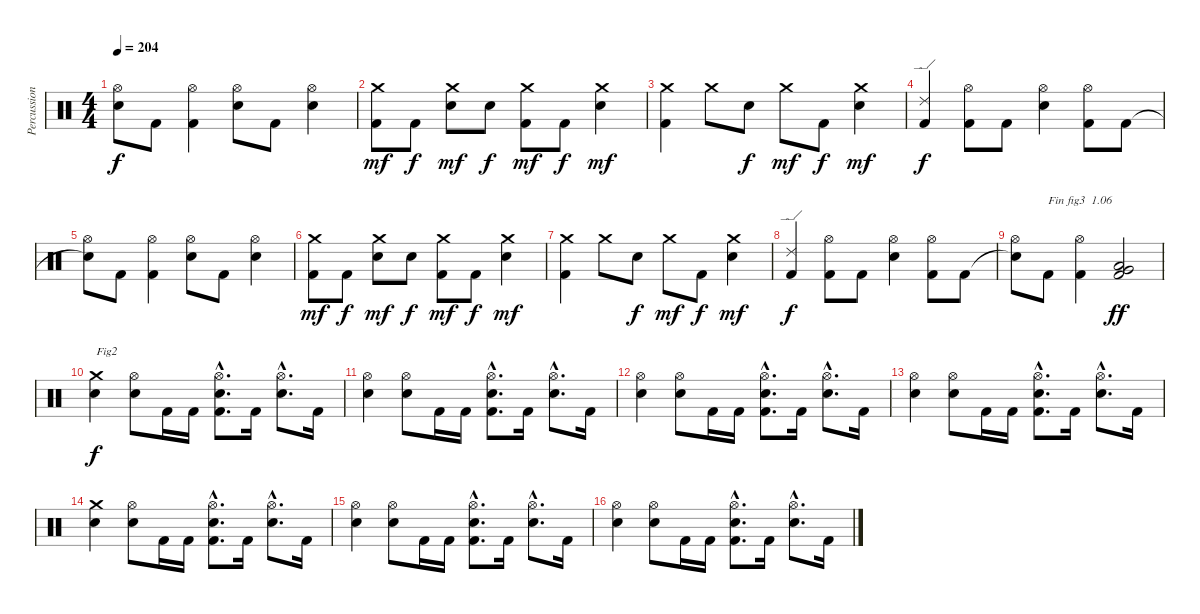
\track ("Percussions" "Percussion") {instrument percussion}
\staff {score}
\articulation defaults
\ts (4 4)
\tempo 204
\clef neutral
\ks c
("Snare (hit)"{t} "Hi-Hat (open)").8{dy f} "Kick (hit) 2".8 ("Kick (hit) 2" "Hi-Hat (open)").4 ("Electric Snare (hit)" "Hi-Hat (open)").8 "Kick (hit) 2".8 ("Electric Snare (hit)" "Hi-Hat (open)").4 |
("Kick (hit) 2" "Crash medium (hit)").8{dy mf} "Kick (hit) 2".8{dy f} ("Electric Snare (hit)" "Crash medium (hit)").8{dy mf} "Electric Snare (hit)".8{dy f} ("Kick (hit) 2" "Crash medium (hit)").8{dy mf} "Kick (hit) 2".8{dy f} ("Electric Snare (hit)" "Crash medium (hit)").4{dy mf} |
("Kick (hit) 2" "Crash medium (hit)").4 "Crash medium (hit)".8 "Electric Snare (hit)".8{dy f} "Crash medium (hit)".8{dy mf} "Kick (hit) 2".8{dy f} ("Electric Snare (hit)" "Crash medium (hit)").4{dy mf} |
("Kick (hit) 2" "Ride (edge) 2").4{dy f} ("Kick (hit) 2" "Hi-Hat (open)").8 "Kick (hit) 2".8 ("Electric Snare (hit)" "Hi-Hat (open)").4 ("Kick (hit) 2" "Hi-Hat (open)").8 "Kick (hit) 2".8 |
("Snare (hit)"{t} "Hi-Hat (open)").8 "Kick (hit) 2".8 ("Kick (hit) 2" "Hi-Hat (open)").4 ("Electric Snare (hit)" "Hi-Hat (open)").8 "Kick (hit) 2".8 ("Electric Snare (hit)" "Hi-Hat (open)").4 |
("Kick (hit) 2" "Crash medium (hit)").8{dy mf} "Kick (hit) 2".8{dy f} ("Electric Snare (hit)" "Crash medium (hit)").8{dy mf} "Electric Snare (hit)".8{dy f} ("Kick (hit) 2" "Crash medium (hit)").8{dy mf} "Kick (hit) 2".8{dy f} ("Electric Snare (hit)" "Crash medium (hit)").4{dy mf} |
("Kick (hit) 2" "Crash medium (hit)").4 "Crash medium (hit)".8 "Electric Snare (hit)".8{dy f} "Crash medium (hit)".8{dy mf} "Kick (hit) 2".8{dy f} ("Electric Snare (hit)" "Crash medium (hit)").4{dy mf} |
("Kick (hit) 2" "Ride (edge) 2").4{dy f} ("Kick (hit) 2" "Hi-Hat (open)").8 "Kick (hit) 2".8 ("Electric Snare (hit)" "Hi-Hat (open)").4 ("Kick (hit) 2" "Hi-Hat (open)").8 "Kick (hit) 2".8 |
("Snare (hit)"{t} "Hi-Hat (open)").8 "Kick (hit) 2".8{txt "Fin fig3  1.06"} ("Kick (hit) 2" "Hi-Hat (open)").4 ("Kick (hit) 2" "Low Floor Tom (hit)" "Very Low Tom (hit)").2{dy ff} |
("Electric Snare (hit)" "Crash medium (hit)").4{txt "Fig2" dy f} ("Electric Snare (hit)" "Hi-Hat (open)").8 "Kick (hit) 2".16 "Kick (hit) 2".16 ("Kick (hit) 2"{hac} "Electric Snare (hit)"{hac} "Hi-Hat (open)"{hac}).8{d} "Kick (hit) 2".16 ("Electric Snare (hit)"{hac} "Hi-Hat (open)"{hac}).8{d} "Kick (hit) 2".16 |
("Electric Snare (hit)" "Hi-Hat (open)").4 ("Electric Snare (hit)" "Hi-Hat (open)").8 "Kick (hit) 2".16 "Kick (hit) 2".16 ("Kick (hit) 2"{hac} "Electric Snare (hit)"{hac} "Hi-Hat (open)"{hac}).8{d} "Kick (hit) 2".16 ("Electric Snare (hit)"{hac} "Hi-Hat (open)"{hac}).8{d} "Kick (hit) 2".16 |
("Electric Snare (hit)" "Hi-Hat (open)").4 ("Electric Snare (hit)" "Hi-Hat (open)").8 "Kick (hit) 2".16 "Kick (hit) 2".16 ("Kick (hit) 2"{hac} "Electric Snare (hit)"{hac} "Hi-Hat (open)"{hac}).8{d} "Kick (hit) 2".16 ("Electric Snare (hit)"{hac} "Hi-Hat (open)"{hac}).8{d} "Kick (hit) 2".16 |
("Electric Snare (hit)" "Hi-Hat (open)").4 ("Electric Snare (hit)" "Hi-Hat (open)").8 "Kick (hit) 2".16 "Kick (hit) 2".16 ("Kick (hit) 2"{hac} "Electric Snare (hit)"{hac} "Hi-Hat (open)"{hac}).8{d} "Kick (hit) 2".16 ("Electric Snare (hit)"{hac} "Hi-Hat (open)"{hac}).8{d} "Kick (hit) 2".16 |
("Electric Snare (hit)" "Crash medium (hit)").4 ("Electric Snare (hit)" "Hi-Hat (open)").8 "Kick (hit) 2".16 "Kick (hit) 2".16 ("Kick (hit) 2"{hac} "Electric Snare (hit)"{hac} "Hi-Hat (open)"{hac}).8{d} "Kick (hit) 2".16 ("Electric Snare (hit)"{hac} "Hi-Hat (open)"{hac}).8{d} "Kick (hit) 2".16 |
("Electric Snare (hit)" "Hi-Hat (open)").4 ("Electric Snare (hit)" "Hi-Hat (open)").8 "Kick (hit) 2".16 "Kick (hit) 2".16 ("Kick (hit) 2"{hac} "Electric Snare (hit)"{hac} "Hi-Hat (open)"{hac}).8{d} "Kick (hit) 2".16 ("Electric Snare (hit)"{hac} "Hi-Hat (open)"{hac}).8{d} "Kick (hit) 2".16 |
("Electric Snare (hit)" "Hi-Hat (open)").4 ("Electric Snare (hit)" "Hi-Hat (open)").8 "Kick (hit) 2".16 "Kick (hit) 2".16 ("Kick (hit) 2"{hac} "Electric Snare (hit)"{hac} "Hi-Hat (open)"{hac}).8{d} "Kick (hit) 2".16 ("Electric Snare (hit)"{hac} "Hi-Hat (open)"{hac}).8{d} "Kick (hit) 2".16
